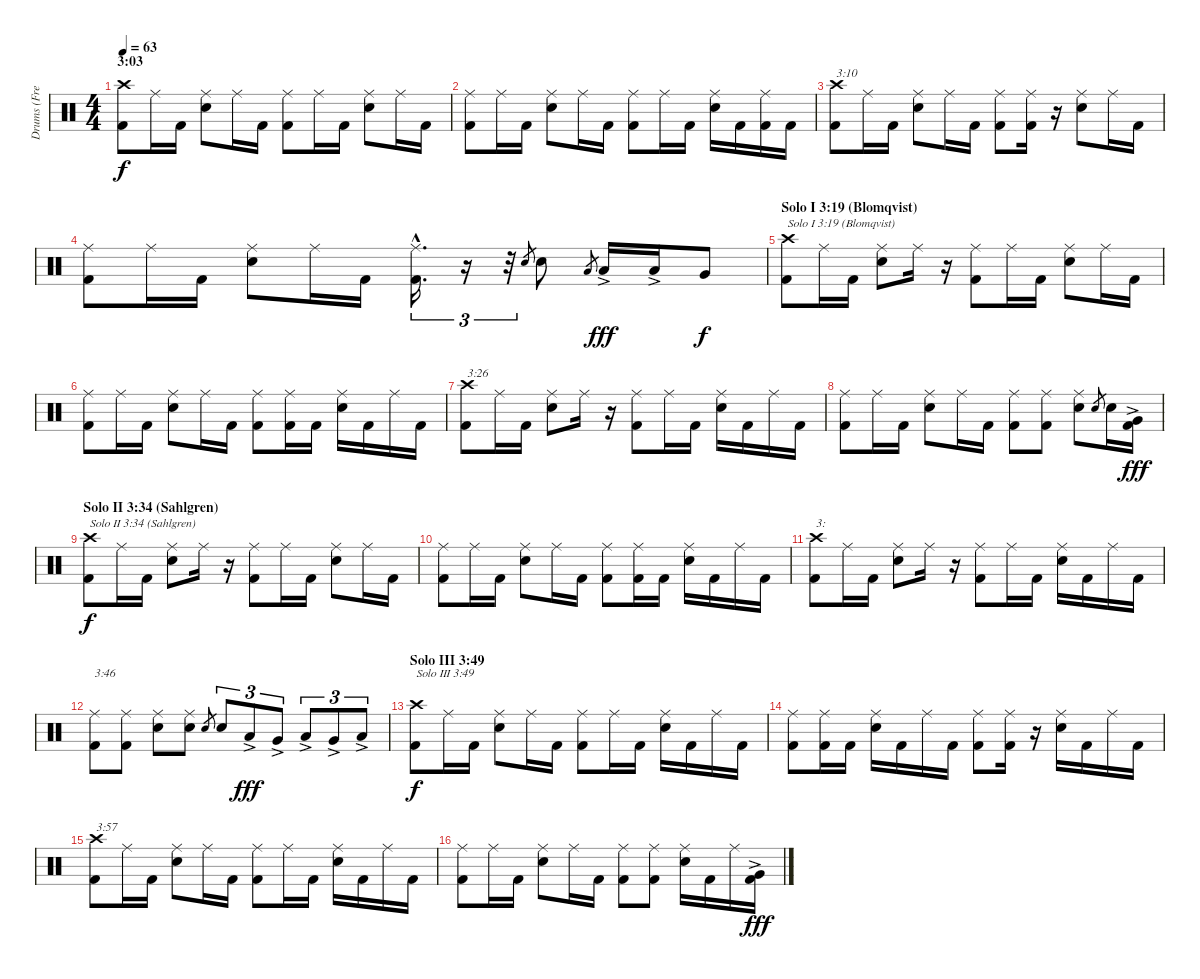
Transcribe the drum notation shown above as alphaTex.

\track ("Drums (Fred Estby)" "Drums (Fre") {instrument percussion}
\staff {score}
\articulation defaults
\ts (4 4)
\section ("" "3:03")
\tempo 63
\clef neutral
\ks c
("Kick (hit) 2" "Crash high (hit)").8{dy f} "Ride (middle)".16 "Kick (hit) 2".16 ("Electric Snare (hit)" "Ride (middle)").8 "Ride (middle)".16 "Kick (hit) 2".16 ("Kick (hit) 2" "Ride (middle)").8 "Ride (middle)".16 "Kick (hit) 2".16 ("Electric Snare (hit)" "Ride (middle)").8 "Ride (middle)".16 "Kick (hit) 2".16 |
("Kick (hit) 2" "Ride (middle)").8 "Ride (middle)".16 "Kick (hit) 2".16 ("Electric Snare (hit)" "Ride (middle)").8 "Ride (middle)".16 "Kick (hit) 2".16 ("Kick (hit) 2" "Ride (middle)").8 "Ride (middle)".16 "Kick (hit) 2".16 ("Electric Snare (hit)" "Ride (middle)").16 "Kick (hit) 2".16 ("Kick (hit) 2" "Ride (middle)").16 "Kick (hit) 2".16 |
("Kick (hit) 2" "Crash high (hit)").8{txt "3:10"} "Ride (middle)".16 "Kick (hit) 2".16 ("Electric Snare (hit)" "Ride (middle)").8 "Ride (middle)".16 "Kick (hit) 2".16 ("Kick (hit) 2" "Ride (middle)").8 ("Kick (hit) 2" "Ride (middle)").16 r.16 ("Electric Snare (hit)" "Ride (middle)").8 "Ride (middle)".16 "Kick (hit) 2".16 |
("Kick (hit) 2" "Ride (middle)").8 "Ride (middle)".16 "Kick (hit) 2".16 ("Electric Snare (hit)" "Ride (middle)").8 "Ride (middle)".16 "Kick (hit) 2".16 ("Kick (hit) 2"{hac} "Ride (middle)"{hac}).16{d tu (3 2)} r.16{tu (3 2)} r.32{tu (3 2)} "Electric Snare (hit)".8{gr} "Electric Snare (hit)".8 "Low Tom (hit)".8{gr} "Low Tom (hit)"{ac}.16{dy fff} "Low Tom (hit)"{ac}.16 "Very Low Tom (hit)".8{dy f} |
\section ("" "Solo I 3:19 (Blomqvist) ")
("Kick (hit) 2" "Crash high (hit)").8{txt "Solo I 3:19 (Blomqvist) "} "Ride (middle)".16 "Kick (hit) 2".16 ("Electric Snare (hit)" "Ride (middle)").8 "Ride (middle)".16 r.16 ("Kick (hit) 2" "Ride (middle)").8 "Ride (middle)".16 "Kick (hit) 2".16 ("Electric Snare (hit)" "Ride (middle)").8 "Ride (middle)".16 "Kick (hit) 2".16 |
("Kick (hit) 2" "Ride (middle)").8 "Ride (middle)".16 "Kick (hit) 2".16 ("Electric Snare (hit)" "Ride (middle)").8 "Ride (middle)".16 "Kick (hit) 2".16 ("Kick (hit) 2" "Ride (middle)").8 ("Kick (hit) 2" "Ride (middle)").16 "Kick (hit) 2".16 ("Electric Snare (hit)" "Ride (middle)").16 "Kick (hit) 2".16 "Ride (middle)".16 "Kick (hit) 2".16 |
("Kick (hit) 2" "Crash high (hit)").8{txt "3:26"} "Ride (middle)".16 "Kick (hit) 2".16 ("Electric Snare (hit)" "Ride (middle)").8 "Ride (middle)".16 r.16 ("Kick (hit) 2" "Ride (middle)").8 "Ride (middle)".16 "Kick (hit) 2".16 ("Electric Snare (hit)" "Ride (middle)").16 "Kick (hit) 2".16 "Ride (middle)".16 "Kick (hit) 2".16 |
("Kick (hit) 2" "Ride (middle)").8 "Ride (middle)".16 "Kick (hit) 2".16 ("Electric Snare (hit)" "Ride (middle)").8 "Ride (middle)".16 "Kick (hit) 2".16 ("Kick (hit) 2" "Ride (middle)").8 ("Kick (hit) 2" "Ride (middle)").8 ("Electric Snare (hit)" "Ride (middle)").8 "Electric Snare (hit)".8{gr} "Electric Snare (hit)".16 ("Kick (hit) 2" "Very Low Tom (hit)"{ac}).16{dy fff} |
\section ("" "Solo II 3:34 (Sahlgren)")
("Kick (hit) 2" "Crash high (hit)").8{txt "Solo II 3:34 (Sahlgren)" dy f} "Ride (middle)".16 "Kick (hit) 2".16 ("Electric Snare (hit)" "Ride (middle)").8 "Ride (middle)".16 r.16 ("Kick (hit) 2" "Ride (middle)").8 "Ride (middle)".16 "Kick (hit) 2".16 ("Electric Snare (hit)" "Ride (middle)").8 "Ride (middle)".16 "Kick (hit) 2".16 |
("Kick (hit) 2" "Ride (middle)").8 "Ride (middle)".16 "Kick (hit) 2".16 ("Electric Snare (hit)" "Ride (middle)").8 "Ride (middle)".16 "Kick (hit) 2".16 ("Kick (hit) 2" "Ride (middle)").8 ("Kick (hit) 2" "Ride (middle)").16 "Kick (hit) 2".16 ("Electric Snare (hit)" "Ride (middle)").16 "Kick (hit) 2".16 "Ride (middle)".16 "Kick (hit) 2".16 |
("Kick (hit) 2" "Crash high (hit)").8{txt "3:"} "Ride (middle)".16 "Kick (hit) 2".16 ("Electric Snare (hit)" "Ride (middle)").8 "Ride (middle)".16 r.16 ("Kick (hit) 2" "Ride (middle)").8 "Ride (middle)".16 "Kick (hit) 2".16 ("Electric Snare (hit)" "Ride (middle)").16 "Kick (hit) 2".16 "Ride (middle)".16 "Kick (hit) 2".16 |
("Kick (hit) 2" "Ride (middle)").8{txt "3:46"} ("Kick (hit) 2" "Ride (middle)").8 ("Electric Snare (hit)" "Ride (middle)").8 ("Electric Snare (hit)" "Ride (middle)").8 "Electric Snare (hit)".8{gr} "Electric Snare (hit)".8{tu (3 2)} "Low Tom (hit)"{ac}.8{tu (3 2) dy fff} "Very Low Tom (hit)"{ac}.8{tu (3 2)} "Low Tom (hit)"{ac}.8{tu (3 2)} "Very Low Tom (hit)"{ac}.8{tu (3 2)} "Low Floor Tom (hit)"{ac}.8{tu (3 2)} |
\section ("" "Solo III 3:49")
("Kick (hit) 2" "Crash high (hit)").8{txt "Solo III 3:49" dy f} "Ride (middle)".16 "Kick (hit) 2".16 ("Electric Snare (hit)" "Ride (middle)").8 "Ride (middle)".16 "Kick (hit) 2".16 ("Kick (hit) 2" "Ride (middle)").8 "Ride (middle)".16 "Kick (hit) 2".16 ("Electric Snare (hit)" "Ride (middle)").16 "Kick (hit) 2".16 "Ride (middle)".16 "Kick (hit) 2".16 |
("Kick (hit) 2" "Ride (middle)").8 ("Kick (hit) 2" "Ride (middle)").16 "Kick (hit) 2".16 ("Electric Snare (hit)" "Ride (middle)").16 "Kick (hit) 2".16 "Ride (middle)".16 "Kick (hit) 2".16 ("Kick (hit) 2" "Ride (middle)").8 ("Kick (hit) 2" "Ride (middle)").16 r.16 ("Electric Snare (hit)" "Ride (middle)").16 "Kick (hit) 2".16 "Ride (middle)".16 "Kick (hit) 2".16 |
("Kick (hit) 2" "Crash high (hit)").8{txt "3:57"} "Ride (middle)".16 "Kick (hit) 2".16 ("Electric Snare (hit)" "Ride (middle)").8 "Ride (middle)".16 "Kick (hit) 2".16 ("Kick (hit) 2" "Ride (middle)").8 "Ride (middle)".16 "Kick (hit) 2".16 ("Electric Snare (hit)" "Ride (middle)").16 "Kick (hit) 2".16 "Ride (middle)".16 "Kick (hit) 2".16 |
("Kick (hit) 2" "Ride (middle)").8 "Ride (middle)".16 "Kick (hit) 2".16 ("Electric Snare (hit)" "Ride (middle)").8 "Ride (middle)".16 "Kick (hit) 2".16 ("Kick (hit) 2" "Ride (middle)").8 ("Kick (hit) 2" "Ride (middle)").8 ("Electric Snare (hit)" "Ride (middle)").16 "Kick (hit) 2".16 "Ride (middle)".16 ("Kick (hit) 2" "Very Low Tom (hit)"{ac}).16{dy fff}
